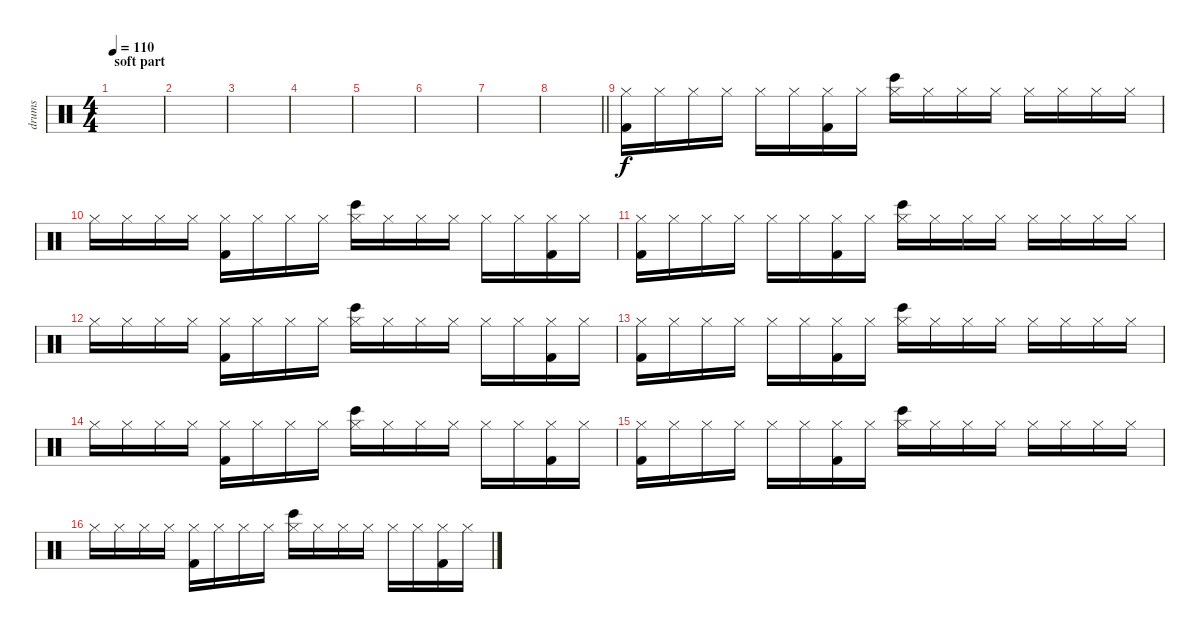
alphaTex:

\track ("drums" "drums") {instrument percussion}
\staff {score}
\articulation defaults
\ts (4 4)
\section ("" "soft part")
\tempo 110
\clef neutral
\ks c
|
|
|
|
|
|
|
\barLineRight lightlight
|
\section ("" "")
("Hi-Hat (closed)" "Kick (hit) 2").16 "Hi-Hat (closed)".16 "Hi-Hat (closed)".16 "Hi-Hat (closed)".16 "Hi-Hat (closed)".16 "Hi-Hat (closed)".16 ("Hi-Hat (closed)" "Kick (hit) 2").16 "Hi-Hat (closed)".16 ("Hi-Hat (closed)" "Bongo High (hit)").16 "Hi-Hat (closed)".16 "Hi-Hat (closed)".16 "Hi-Hat (closed)".16 "Hi-Hat (closed)".16 "Hi-Hat (closed)".16 "Hi-Hat (closed)".16 "Hi-Hat (closed)".16 |
"Hi-Hat (closed)".16 "Hi-Hat (closed)".16 "Hi-Hat (closed)".16 "Hi-Hat (closed)".16 ("Hi-Hat (closed)" "Kick (hit) 2").16 "Hi-Hat (closed)".16 "Hi-Hat (closed)".16 "Hi-Hat (closed)".16 ("Hi-Hat (closed)" "Bongo High (hit)").16 "Hi-Hat (closed)".16 "Hi-Hat (closed)".16 "Hi-Hat (closed)".16 "Hi-Hat (closed)".16 "Hi-Hat (closed)".16 ("Hi-Hat (closed)" "Kick (hit) 2").16 "Hi-Hat (closed)".16 |
("Hi-Hat (closed)" "Kick (hit) 2").16 "Hi-Hat (closed)".16 "Hi-Hat (closed)".16 "Hi-Hat (closed)".16 "Hi-Hat (closed)".16 "Hi-Hat (closed)".16 ("Hi-Hat (closed)" "Kick (hit) 2").16 "Hi-Hat (closed)".16 ("Hi-Hat (closed)" "Bongo High (hit)").16 "Hi-Hat (closed)".16 "Hi-Hat (closed)".16 "Hi-Hat (closed)".16 "Hi-Hat (closed)".16 "Hi-Hat (closed)".16 "Hi-Hat (closed)".16 "Hi-Hat (closed)".16 |
"Hi-Hat (closed)".16 "Hi-Hat (closed)".16 "Hi-Hat (closed)".16 "Hi-Hat (closed)".16 ("Hi-Hat (closed)" "Kick (hit) 2").16 "Hi-Hat (closed)".16 "Hi-Hat (closed)".16 "Hi-Hat (closed)".16 ("Hi-Hat (closed)" "Bongo High (hit)").16 "Hi-Hat (closed)".16 "Hi-Hat (closed)".16 "Hi-Hat (closed)".16 "Hi-Hat (closed)".16 "Hi-Hat (closed)".16 ("Hi-Hat (closed)" "Kick (hit) 2").16 "Hi-Hat (closed)".16 |
("Hi-Hat (closed)" "Kick (hit) 2").16 "Hi-Hat (closed)".16 "Hi-Hat (closed)".16 "Hi-Hat (closed)".16 "Hi-Hat (closed)".16 "Hi-Hat (closed)".16 ("Hi-Hat (closed)" "Kick (hit) 2").16 "Hi-Hat (closed)".16 ("Hi-Hat (closed)" "Bongo High (hit)").16 "Hi-Hat (closed)".16 "Hi-Hat (closed)".16 "Hi-Hat (closed)".16 "Hi-Hat (closed)".16 "Hi-Hat (closed)".16 "Hi-Hat (closed)".16 "Hi-Hat (closed)".16 |
"Hi-Hat (closed)".16 "Hi-Hat (closed)".16 "Hi-Hat (closed)".16 "Hi-Hat (closed)".16 ("Hi-Hat (closed)" "Kick (hit) 2").16 "Hi-Hat (closed)".16 "Hi-Hat (closed)".16 "Hi-Hat (closed)".16 ("Hi-Hat (closed)" "Bongo High (hit)").16 "Hi-Hat (closed)".16 "Hi-Hat (closed)".16 "Hi-Hat (closed)".16 "Hi-Hat (closed)".16 "Hi-Hat (closed)".16 ("Hi-Hat (closed)" "Kick (hit) 2").16 "Hi-Hat (closed)".16 |
("Hi-Hat (closed)" "Kick (hit) 2").16 "Hi-Hat (closed)".16 "Hi-Hat (closed)".16 "Hi-Hat (closed)".16 "Hi-Hat (closed)".16 "Hi-Hat (closed)".16 ("Hi-Hat (closed)" "Kick (hit) 2").16 "Hi-Hat (closed)".16 ("Hi-Hat (closed)" "Bongo High (hit)").16 "Hi-Hat (closed)".16 "Hi-Hat (closed)".16 "Hi-Hat (closed)".16 "Hi-Hat (closed)".16 "Hi-Hat (closed)".16 "Hi-Hat (closed)".16 "Hi-Hat (closed)".16 |
"Hi-Hat (closed)".16 "Hi-Hat (closed)".16 "Hi-Hat (closed)".16 "Hi-Hat (closed)".16 ("Hi-Hat (closed)" "Kick (hit) 2").16 "Hi-Hat (closed)".16 "Hi-Hat (closed)".16 "Hi-Hat (closed)".16 ("Hi-Hat (closed)" "Bongo High (hit)").16 "Hi-Hat (closed)".16 "Hi-Hat (closed)".16 "Hi-Hat (closed)".16 "Hi-Hat (closed)".16 "Hi-Hat (closed)".16 ("Hi-Hat (closed)" "Kick (hit) 2").16 "Hi-Hat (closed)".16
